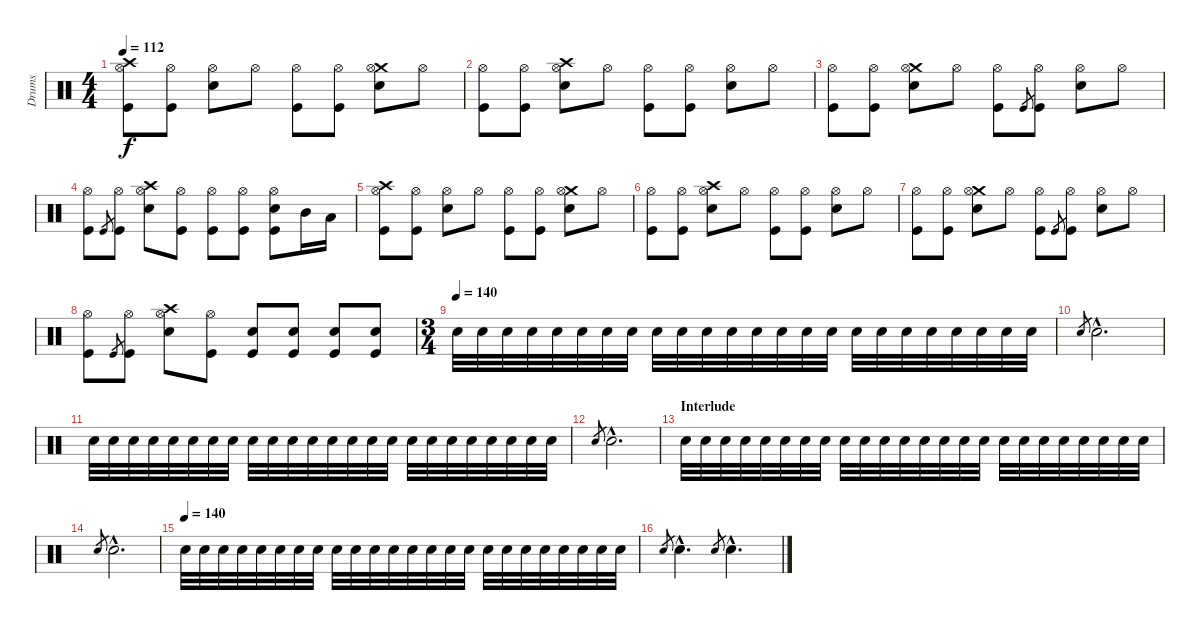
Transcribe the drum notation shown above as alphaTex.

\track ("Drums" "Drums") {instrument percussion}
\staff {score}
\articulation defaults
\ts (4 4)
\tempo 112
\clef neutral
\ks c
("Crash high (hit)" "Hi-Hat (open)" "Kick (hit)").8{dy f} ("Hi-Hat (open)" "Kick (hit)").8 ("Hi-Hat (open)" "Snare (hit) 2").8 "Hi-Hat (open)".8 ("Hi-Hat (open)" "Kick (hit)").8 ("Hi-Hat (open)" "Kick (hit)").8 ("Crash medium (hit)" "Hi-Hat (open)" "Snare (hit) 2").8 "Hi-Hat (open)".8 |
("Hi-Hat (open)" "Kick (hit)").8 ("Hi-Hat (open)" "Kick (hit)").8 ("Crash high (hit)" "Hi-Hat (open)" "Snare (hit) 2").8 "Hi-Hat (open)".8 ("Hi-Hat (open)" "Kick (hit)").8 ("Hi-Hat (open)" "Kick (hit)").8 ("Hi-Hat (open)" "Snare (hit) 2").8 "Hi-Hat (open)".8 |
("Hi-Hat (open)" "Kick (hit)").8 ("Hi-Hat (open)" "Kick (hit)").8 ("Crash medium (hit)" "Hi-Hat (open)" "Snare (hit) 2").8 "Hi-Hat (open)".8 ("Hi-Hat (open)" "Kick (hit)").8 "Kick (hit)".8{gr} ("Hi-Hat (open)" "Kick (hit)").8 ("Hi-Hat (open)" "Snare (hit) 2").8 "Hi-Hat (open)".8 |
("Hi-Hat (open)" "Kick (hit)").8 "Kick (hit)".8{gr} ("Hi-Hat (open)" "Kick (hit)").8 ("Crash high (hit)" "Hi-Hat (open)" "Snare (hit) 2").8 ("Hi-Hat (open)" "Kick (hit)").8 ("Hi-Hat (open)" "Kick (hit)").8 ("Hi-Hat (open)" "Kick (hit)").8 ("Hi-Hat (open)" "Snare (hit) 2" "Kick (hit)").8 "Mid Tom (hit)".16 "Low Tom (hit)".16 |
("Crash high (hit)" "Hi-Hat (open)" "Kick (hit)").8 ("Hi-Hat (open)" "Kick (hit)").8 ("Hi-Hat (open)" "Snare (hit) 2").8 "Hi-Hat (open)".8 ("Hi-Hat (open)" "Kick (hit)").8 ("Hi-Hat (open)" "Kick (hit)").8 ("Crash medium (hit)" "Hi-Hat (open)" "Snare (hit) 2").8 "Hi-Hat (open)".8 |
("Hi-Hat (open)" "Kick (hit)").8 ("Hi-Hat (open)" "Kick (hit)").8 ("Crash high (hit)" "Hi-Hat (open)" "Snare (hit) 2").8 "Hi-Hat (open)".8 ("Hi-Hat (open)" "Kick (hit)").8 ("Hi-Hat (open)" "Kick (hit)").8 ("Hi-Hat (open)" "Snare (hit) 2").8 "Hi-Hat (open)".8 |
("Hi-Hat (open)" "Kick (hit)").8 ("Hi-Hat (open)" "Kick (hit)").8 ("Crash medium (hit)" "Hi-Hat (open)" "Snare (hit) 2").8 "Hi-Hat (open)".8 ("Hi-Hat (open)" "Kick (hit)").8 "Kick (hit)".8{gr} ("Hi-Hat (open)" "Kick (hit)").8 ("Hi-Hat (open)" "Snare (hit) 2").8 "Hi-Hat (open)".8 |
("Hi-Hat (open)" "Kick (hit)").8{volume 10} "Kick (hit)".8{gr} ("Hi-Hat (open)" "Kick (hit)").8 ("Crash high (hit)" "Hi-Hat (open)" "Snare (hit) 2").8 ("Hi-Hat (open)" "Kick (hit)").8 ("Snare (hit) 2" "Kick (hit)").8 ("Snare (hit) 2" "Kick (hit)").8 ("Snare (hit) 2" "Kick (hit)").8 ("Snare (hit) 2" "Kick (hit)").8 |
\ts (3 4)
\tempo (140)
"Snare (hit) 2".32{volume 10} "Snare (hit) 2".32 "Snare (hit) 2".32 "Snare (hit) 2".32 "Snare (hit) 2".32 "Snare (hit) 2".32 "Snare (hit) 2".32 "Snare (hit) 2".32 "Snare (hit) 2".32 "Snare (hit) 2".32 "Snare (hit) 2".32 "Snare (hit) 2".32 "Snare (hit) 2".32 "Snare (hit) 2".32 "Snare (hit) 2".32 "Snare (hit) 2".32 "Snare (hit) 2".32 "Snare (hit) 2".32 "Snare (hit) 2".32 "Snare (hit) 2".32 "Snare (hit) 2".32 "Snare (hit) 2".32 "Snare (hit) 2".32 "Snare (hit) 2".32 |
"Snare (hit) 2".8{gr} "Snare (hit) 2"{hac}.2{d} |
"Snare (hit) 2".32 "Snare (hit) 2".32 "Snare (hit) 2".32 "Snare (hit) 2".32 "Snare (hit) 2".32 "Snare (hit) 2".32 "Snare (hit) 2".32 "Snare (hit) 2".32 "Snare (hit) 2".32 "Snare (hit) 2".32 "Snare (hit) 2".32 "Snare (hit) 2".32 "Snare (hit) 2".32 "Snare (hit) 2".32 "Snare (hit) 2".32 "Snare (hit) 2".32 "Snare (hit) 2".32 "Snare (hit) 2".32 "Snare (hit) 2".32 "Snare (hit) 2".32 "Snare (hit) 2".32 "Snare (hit) 2".32 "Snare (hit) 2".32 "Snare (hit) 2".32 |
"Snare (hit) 2".8{gr} "Snare (hit) 2"{hac}.2{d} |
\section ("" "Interlude")
"Snare (hit) 2".32 "Snare (hit) 2".32 "Snare (hit) 2".32 "Snare (hit) 2".32 "Snare (hit) 2".32 "Snare (hit) 2".32 "Snare (hit) 2".32 "Snare (hit) 2".32 "Snare (hit) 2".32 "Snare (hit) 2".32 "Snare (hit) 2".32 "Snare (hit) 2".32 "Snare (hit) 2".32 "Snare (hit) 2".32 "Snare (hit) 2".32 "Snare (hit) 2".32 "Snare (hit) 2".32 "Snare (hit) 2".32 "Snare (hit) 2".32 "Snare (hit) 2".32 "Snare (hit) 2".32 "Snare (hit) 2".32 "Snare (hit) 2".32 "Snare (hit) 2".32 |
"Snare (hit) 2".8{gr} "Snare (hit) 2"{hac}.2{d} |
\tempo (140)
"Snare (hit) 2".32{volume 10} "Snare (hit) 2".32 "Snare (hit) 2".32 "Snare (hit) 2".32 "Snare (hit) 2".32 "Snare (hit) 2".32 "Snare (hit) 2".32 "Snare (hit) 2".32 "Snare (hit) 2".32 "Snare (hit) 2".32 "Snare (hit) 2".32 "Snare (hit) 2".32 "Snare (hit) 2".32 "Snare (hit) 2".32 "Snare (hit) 2".32 "Snare (hit) 2".32 "Snare (hit) 2".32 "Snare (hit) 2".32 "Snare (hit) 2".32 "Snare (hit) 2".32 "Snare (hit) 2".32 "Snare (hit) 2".32 "Snare (hit) 2".32 "Snare (hit) 2".32 |
"Snare (hit) 2".8{gr} "Snare (hit) 2"{hac}.4{d} "Snare (hit) 2".8{gr} "Snare (hit) 2"{hac}.4{d}
